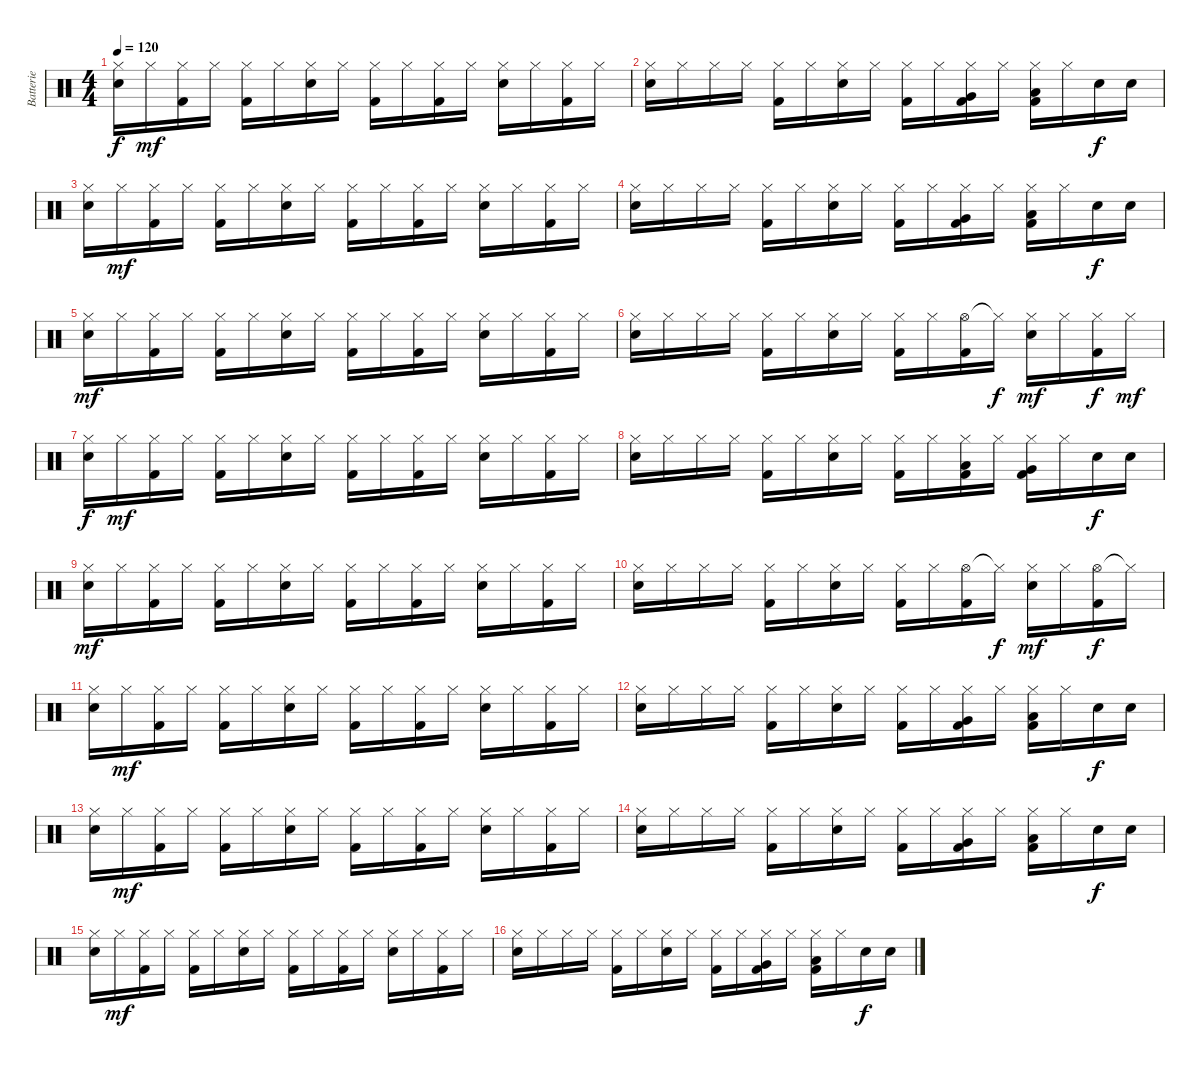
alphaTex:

\track ("Batterie" "Batterie") {instrument percussion}
\staff {score}
\articulation defaults
\ts (4 4)
\tempo 120
\clef neutral
\ks c
("Hi-Hat (closed)" "Snare (hit) 2").16{dy f} "Hi-Hat (closed)".16{dy mf} ("Hi-Hat (closed)" "Kick (hit) 2").16 "Hi-Hat (closed)".16 ("Hi-Hat (closed)" "Kick (hit) 2").16 "Hi-Hat (closed)".16 ("Hi-Hat (closed)" "Snare (hit) 2").16 "Hi-Hat (closed)".16 ("Hi-Hat (closed)" "Kick (hit) 2").16 "Hi-Hat (closed)".16 ("Hi-Hat (closed)" "Kick (hit) 2").16 "Hi-Hat (closed)".16 ("Hi-Hat (closed)" "Snare (hit) 2").16 "Hi-Hat (closed)".16 ("Hi-Hat (closed)" "Kick (hit) 2").16 "Hi-Hat (closed)".16 |
("Hi-Hat (closed)" "Snare (hit) 2").16 "Hi-Hat (closed)".16 "Hi-Hat (closed)".16 "Hi-Hat (closed)".16 ("Hi-Hat (closed)" "Kick (hit) 2").16 "Hi-Hat (closed)".16 ("Hi-Hat (closed)" "Snare (hit) 2").16 "Hi-Hat (closed)".16 ("Hi-Hat (closed)" "Kick (hit) 2").16 "Hi-Hat (closed)".16 ("Hi-Hat (closed)" "Very Low Tom (hit)" "Kick (hit) 2").16 "Hi-Hat (closed)".16 ("Hi-Hat (closed)" "Low Floor Tom (hit)" "Kick (hit) 2").16 "Hi-Hat (closed)".16 "Electric Snare (hit)".16{dy f} "Electric Snare (hit)".16 |
("Hi-Hat (closed)" "Snare (hit) 2").16 "Hi-Hat (closed)".16{dy mf} ("Hi-Hat (closed)" "Kick (hit) 2").16 "Hi-Hat (closed)".16 ("Hi-Hat (closed)" "Kick (hit) 2").16 "Hi-Hat (closed)".16 ("Hi-Hat (closed)" "Snare (hit) 2").16 "Hi-Hat (closed)".16 ("Hi-Hat (closed)" "Kick (hit) 2").16 "Hi-Hat (closed)".16 ("Hi-Hat (closed)" "Kick (hit) 2").16 "Hi-Hat (closed)".16 ("Hi-Hat (closed)" "Snare (hit) 2").16 "Hi-Hat (closed)".16 ("Hi-Hat (closed)" "Kick (hit) 2").16 "Hi-Hat (closed)".16 |
("Hi-Hat (closed)" "Snare (hit) 2").16 "Hi-Hat (closed)".16 "Hi-Hat (closed)".16 "Hi-Hat (closed)".16 ("Hi-Hat (closed)" "Kick (hit) 2").16 "Hi-Hat (closed)".16 ("Hi-Hat (closed)" "Snare (hit) 2").16 "Hi-Hat (closed)".16 ("Hi-Hat (closed)" "Kick (hit) 2").16 "Hi-Hat (closed)".16 ("Hi-Hat (closed)" "Very Low Tom (hit)" "Kick (hit) 2").16 "Hi-Hat (closed)".16 ("Hi-Hat (closed)" "Low Floor Tom (hit)" "Kick (hit) 2").16 "Hi-Hat (closed)".16 "Electric Snare (hit)".16{dy f} "Electric Snare (hit)".16 |
("Hi-Hat (closed)" "Snare (hit) 2").16{dy mf} "Hi-Hat (closed)".16 ("Hi-Hat (closed)" "Kick (hit) 2").16 "Hi-Hat (closed)".16 ("Hi-Hat (closed)" "Kick (hit) 2").16 "Hi-Hat (closed)".16 ("Hi-Hat (closed)" "Snare (hit) 2").16 "Hi-Hat (closed)".16 ("Hi-Hat (closed)" "Kick (hit) 2").16 "Hi-Hat (closed)".16 ("Hi-Hat (closed)" "Kick (hit) 2").16 "Hi-Hat (closed)".16 ("Hi-Hat (closed)" "Snare (hit) 2").16 "Hi-Hat (closed)".16 ("Hi-Hat (closed)" "Kick (hit) 2").16 "Hi-Hat (closed)".16 |
("Hi-Hat (closed)" "Snare (hit) 2").16 "Hi-Hat (closed)".16 "Hi-Hat (closed)".16 "Hi-Hat (closed)".16 ("Hi-Hat (closed)" "Kick (hit) 2").16 "Hi-Hat (closed)".16 ("Hi-Hat (closed)" "Snare (hit) 2").16 "Hi-Hat (closed)".16 ("Hi-Hat (closed)" "Kick (hit) 2").16 "Hi-Hat (closed)".16 ("Hi-Hat (open)" "Kick (hit) 2").16 "Hi-Hat (closed)"{t}.16{dy f} ("Hi-Hat (closed)" "Snare (hit) 2").16{dy mf} "Hi-Hat (closed)".16 ("Hi-Hat (closed)" "Kick (hit) 2").16{dy f} "Hi-Hat (closed)".16{dy mf} |
("Hi-Hat (closed)" "Snare (hit) 2").16{dy f} "Hi-Hat (closed)".16{dy mf} ("Hi-Hat (closed)" "Kick (hit) 2").16 "Hi-Hat (closed)".16 ("Hi-Hat (closed)" "Kick (hit) 2").16 "Hi-Hat (closed)".16 ("Hi-Hat (closed)" "Snare (hit) 2").16 "Hi-Hat (closed)".16 ("Hi-Hat (closed)" "Kick (hit) 2").16 "Hi-Hat (closed)".16 ("Hi-Hat (closed)" "Kick (hit) 2").16 "Hi-Hat (closed)".16 ("Hi-Hat (closed)" "Snare (hit) 2").16 "Hi-Hat (closed)".16 ("Hi-Hat (closed)" "Kick (hit) 2").16 "Hi-Hat (closed)".16 |
("Hi-Hat (closed)" "Snare (hit) 2").16 "Hi-Hat (closed)".16 "Hi-Hat (closed)".16 "Hi-Hat (closed)".16 ("Hi-Hat (closed)" "Kick (hit) 2").16 "Hi-Hat (closed)".16 ("Hi-Hat (closed)" "Snare (hit) 2").16 "Hi-Hat (closed)".16 ("Hi-Hat (closed)" "Kick (hit) 2").16 "Hi-Hat (closed)".16 ("Hi-Hat (closed)" "Low Tom (hit)" "Kick (hit) 2").16 "Hi-Hat (closed)".16 ("Hi-Hat (closed)" "Very Low Tom (hit)" "Kick (hit) 2").16 "Hi-Hat (closed)".16 "Electric Snare (hit)".16{dy f} "Electric Snare (hit)".16 |
("Hi-Hat (closed)" "Snare (hit) 2").16{dy mf} "Hi-Hat (closed)".16 ("Hi-Hat (closed)" "Kick (hit) 2").16 "Hi-Hat (closed)".16 ("Hi-Hat (closed)" "Kick (hit) 2").16 "Hi-Hat (closed)".16 ("Hi-Hat (closed)" "Snare (hit) 2").16 "Hi-Hat (closed)".16 ("Hi-Hat (closed)" "Kick (hit) 2").16 "Hi-Hat (closed)".16 ("Hi-Hat (closed)" "Kick (hit) 2").16 "Hi-Hat (closed)".16 ("Hi-Hat (closed)" "Snare (hit) 2").16 "Hi-Hat (closed)".16 ("Hi-Hat (closed)" "Kick (hit) 2").16 "Hi-Hat (closed)".16 |
("Hi-Hat (closed)" "Snare (hit) 2").16 "Hi-Hat (closed)".16 "Hi-Hat (closed)".16 "Hi-Hat (closed)".16 ("Hi-Hat (closed)" "Kick (hit) 2").16 "Hi-Hat (closed)".16 ("Hi-Hat (closed)" "Snare (hit) 2").16 "Hi-Hat (closed)".16 ("Hi-Hat (closed)" "Kick (hit) 2").16 "Hi-Hat (closed)".16 ("Hi-Hat (open)" "Kick (hit) 2").16 "Hi-Hat (closed)"{t}.16{dy f} ("Hi-Hat (closed)" "Snare (hit) 2").16{dy mf} "Hi-Hat (closed)".16 ("Hi-Hat (open)" "Kick (hit) 2").16{dy f} "Hi-Hat (closed)"{t}.16 |
("Hi-Hat (closed)" "Snare (hit) 2").16 "Hi-Hat (closed)".16{dy mf} ("Hi-Hat (closed)" "Kick (hit) 2").16 "Hi-Hat (closed)".16 ("Hi-Hat (closed)" "Kick (hit) 2").16 "Hi-Hat (closed)".16 ("Hi-Hat (closed)" "Snare (hit) 2").16 "Hi-Hat (closed)".16 ("Hi-Hat (closed)" "Kick (hit) 2").16 "Hi-Hat (closed)".16 ("Hi-Hat (closed)" "Kick (hit) 2").16 "Hi-Hat (closed)".16 ("Hi-Hat (closed)" "Snare (hit) 2").16 "Hi-Hat (closed)".16 ("Hi-Hat (closed)" "Kick (hit) 2").16 "Hi-Hat (closed)".16 |
("Hi-Hat (closed)" "Snare (hit) 2").16 "Hi-Hat (closed)".16 "Hi-Hat (closed)".16 "Hi-Hat (closed)".16 ("Hi-Hat (closed)" "Kick (hit) 2").16 "Hi-Hat (closed)".16 ("Hi-Hat (closed)" "Snare (hit) 2").16 "Hi-Hat (closed)".16 ("Hi-Hat (closed)" "Kick (hit) 2").16 "Hi-Hat (closed)".16 ("Hi-Hat (closed)" "Very Low Tom (hit)" "Kick (hit) 2").16 "Hi-Hat (closed)".16 ("Hi-Hat (closed)" "Low Floor Tom (hit)" "Kick (hit) 2").16 "Hi-Hat (closed)".16 "Electric Snare (hit)".16{dy f} "Electric Snare (hit)".16 |
("Hi-Hat (closed)" "Snare (hit) 2").16 "Hi-Hat (closed)".16{dy mf} ("Hi-Hat (closed)" "Kick (hit) 2").16 "Hi-Hat (closed)".16 ("Hi-Hat (closed)" "Kick (hit) 2").16 "Hi-Hat (closed)".16 ("Hi-Hat (closed)" "Snare (hit) 2").16 "Hi-Hat (closed)".16 ("Hi-Hat (closed)" "Kick (hit) 2").16 "Hi-Hat (closed)".16 ("Hi-Hat (closed)" "Kick (hit) 2").16 "Hi-Hat (closed)".16 ("Hi-Hat (closed)" "Snare (hit) 2").16 "Hi-Hat (closed)".16 ("Hi-Hat (closed)" "Kick (hit) 2").16 "Hi-Hat (closed)".16 |
("Hi-Hat (closed)" "Snare (hit) 2").16 "Hi-Hat (closed)".16 "Hi-Hat (closed)".16 "Hi-Hat (closed)".16 ("Hi-Hat (closed)" "Kick (hit) 2").16 "Hi-Hat (closed)".16 ("Hi-Hat (closed)" "Snare (hit) 2").16 "Hi-Hat (closed)".16 ("Hi-Hat (closed)" "Kick (hit) 2").16 "Hi-Hat (closed)".16 ("Hi-Hat (closed)" "Very Low Tom (hit)" "Kick (hit) 2").16 "Hi-Hat (closed)".16 ("Hi-Hat (closed)" "Low Floor Tom (hit)" "Kick (hit) 2").16 "Hi-Hat (closed)".16 "Electric Snare (hit)".16{dy f} "Electric Snare (hit)".16 |
("Hi-Hat (closed)" "Snare (hit) 2").16 "Hi-Hat (closed)".16{dy mf} ("Hi-Hat (closed)" "Kick (hit) 2").16 "Hi-Hat (closed)".16 ("Hi-Hat (closed)" "Kick (hit) 2").16 "Hi-Hat (closed)".16 ("Hi-Hat (closed)" "Snare (hit) 2").16 "Hi-Hat (closed)".16 ("Hi-Hat (closed)" "Kick (hit) 2").16 "Hi-Hat (closed)".16 ("Hi-Hat (closed)" "Kick (hit) 2").16 "Hi-Hat (closed)".16 ("Hi-Hat (closed)" "Snare (hit) 2").16 "Hi-Hat (closed)".16 ("Hi-Hat (closed)" "Kick (hit) 2").16 "Hi-Hat (closed)".16 |
("Hi-Hat (closed)" "Snare (hit) 2").16 "Hi-Hat (closed)".16 "Hi-Hat (closed)".16 "Hi-Hat (closed)".16 ("Hi-Hat (closed)" "Kick (hit) 2").16 "Hi-Hat (closed)".16 ("Hi-Hat (closed)" "Snare (hit) 2").16 "Hi-Hat (closed)".16 ("Hi-Hat (closed)" "Kick (hit) 2").16 "Hi-Hat (closed)".16 ("Hi-Hat (closed)" "Very Low Tom (hit)" "Kick (hit) 2").16 "Hi-Hat (closed)".16 ("Hi-Hat (closed)" "Low Floor Tom (hit)" "Kick (hit) 2").16 "Hi-Hat (closed)".16 "Electric Snare (hit)".16{dy f} "Electric Snare (hit)".16
